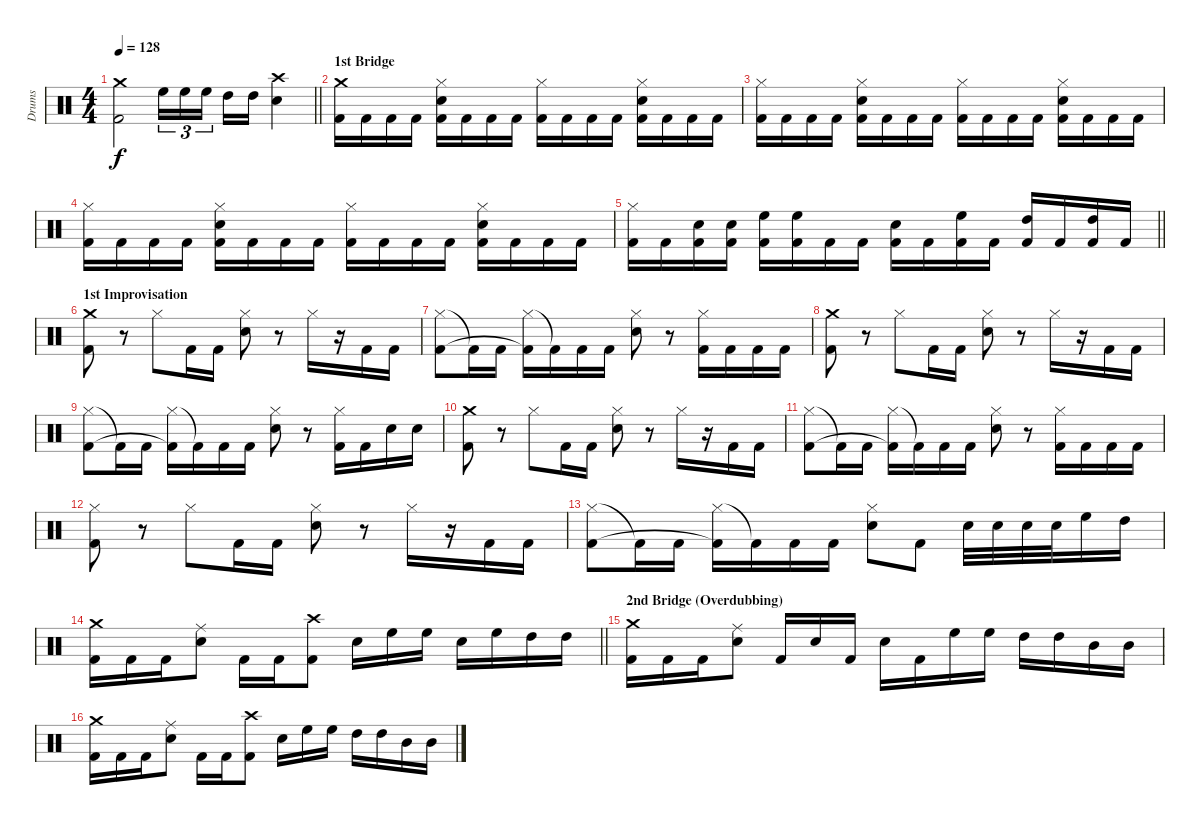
\track ("Drums" "Drums") {instrument percussion}
\staff {score}
\articulation defaults
\ts (4 4)
\tempo 128
\clef neutral
\barLineRight lightlight
\ks c
("Crash medium (hit)"{t} "Kick (hit) 2"{t}).2{dy f} "High Floor Tom (hit)".16{tu (3 2)} "High Floor Tom (hit)".16{tu (3 2)} "High Floor Tom (hit)".16{tu (3 2) beam splitsecondary} "High Tom (hit)".16 "High Tom (hit)".16 ("Crash high (hit)" "Snare (hit) 2").4 |
\section ("" "1st Bridge")
("Crash medium (hit)" "Kick (hit) 2").16 "Kick (hit) 2".16 "Kick (hit) 2".16 "Kick (hit) 2".16 ("Hi-Hat (closed)" "Snare (hit) 2" "Kick (hit) 2").16 "Kick (hit) 2".16 "Kick (hit) 2".16 "Kick (hit) 2".16 ("Hi-Hat (closed)" "Kick (hit) 2").16 "Kick (hit) 2".16 "Kick (hit) 2".16 "Kick (hit) 2".16 ("Hi-Hat (closed)" "Snare (hit) 2" "Kick (hit) 2").16 "Kick (hit) 2".16 "Kick (hit) 2".16 "Kick (hit) 2".16 |
("Hi-Hat (closed)" "Kick (hit) 2").16 "Kick (hit) 2".16 "Kick (hit) 2".16 "Kick (hit) 2".16 ("Hi-Hat (closed)" "Snare (hit) 2" "Kick (hit) 2").16 "Kick (hit) 2".16 "Kick (hit) 2".16 "Kick (hit) 2".16 ("Hi-Hat (closed)" "Kick (hit) 2").16 "Kick (hit) 2".16 "Kick (hit) 2".16 "Kick (hit) 2".16 ("Hi-Hat (closed)" "Snare (hit) 2" "Kick (hit) 2").16 "Kick (hit) 2".16 "Kick (hit) 2".16 "Kick (hit) 2".16 |
("Hi-Hat (closed)" "Kick (hit) 2").16 "Kick (hit) 2".16 "Kick (hit) 2".16 "Kick (hit) 2".16 ("Hi-Hat (closed)" "Snare (hit) 2" "Kick (hit) 2").16 "Kick (hit) 2".16 "Kick (hit) 2".16 "Kick (hit) 2".16 ("Hi-Hat (closed)" "Kick (hit) 2").16 "Kick (hit) 2".16 "Kick (hit) 2".16 "Kick (hit) 2".16 ("Hi-Hat (closed)" "Snare (hit) 2" "Kick (hit) 2").16 "Kick (hit) 2".16 "Kick (hit) 2".16 "Kick (hit) 2".16 |
\barLineRight lightlight
("Hi-Hat (closed)" "Kick (hit) 2").16 "Kick (hit) 2".16 ("Snare (hit) 2" "Kick (hit) 2").16 ("Snare (hit) 2" "Kick (hit) 2").16 ("High Floor Tom (hit)" "Kick (hit) 2").16 ("High Floor Tom (hit)" "Kick (hit) 2").16 "Kick (hit) 2".16 "Kick (hit) 2".16 ("Snare (hit) 2" "Kick (hit) 2").16 "Kick (hit) 2".16 ("High Floor Tom (hit)" "Kick (hit) 2").16 "Kick (hit) 2".16 ("High Tom (hit)" "Kick (hit) 2").16 "Kick (hit) 2".16 ("High Tom (hit)" "Kick (hit) 2").16 "Kick (hit) 2".16 |
\section ("" "1st Improvisation")
("Crash medium (hit)" "Kick (hit) 2").8 r.8 "Hi-Hat (closed)".8 "Kick (hit) 2".16 "Kick (hit) 2".16 ("Hi-Hat (closed)" "Snare (hit) 2").8 r.8 "Hi-Hat (closed)".16 r.16 "Kick (hit) 2".16 "Kick (hit) 2".16 |
("Hi-Hat (closed)" "Kick (hit) 2").8 "Kick (hit) 2"{t}.16 "Kick (hit) 2".16 ("Hi-Hat (closed)" "Kick (hit) 2"{t}).16 "Kick (hit) 2"{t}.16 "Kick (hit) 2".16 "Kick (hit) 2".16 ("Hi-Hat (closed)" "Snare (hit) 2").8 r.8 ("Hi-Hat (closed)" "Kick (hit) 2").16 "Kick (hit) 2".16 "Kick (hit) 2".16 "Kick (hit) 2".16 |
("Crash medium (hit)" "Kick (hit) 2").8 r.8 "Hi-Hat (closed)".8 "Kick (hit) 2".16 "Kick (hit) 2".16 ("Hi-Hat (closed)" "Snare (hit) 2").8 r.8 "Hi-Hat (closed)".16 r.16 "Kick (hit) 2".16 "Kick (hit) 2".16 |
("Hi-Hat (closed)" "Kick (hit) 2").8 "Kick (hit) 2"{t}.16 "Kick (hit) 2".16 ("Hi-Hat (closed)" "Kick (hit) 2"{t}).16 "Kick (hit) 2"{t}.16 "Kick (hit) 2".16 "Kick (hit) 2".16 ("Hi-Hat (closed)" "Snare (hit) 2").8 r.8 ("Hi-Hat (closed)" "Kick (hit) 2").16 "Kick (hit) 2".16 "Snare (hit) 2".16 "Snare (hit) 2".16 |
("Crash medium (hit)" "Kick (hit) 2").8 r.8 "Hi-Hat (closed)".8 "Kick (hit) 2".16 "Kick (hit) 2".16 ("Hi-Hat (closed)" "Snare (hit) 2").8 r.8 "Hi-Hat (closed)".16 r.16 "Kick (hit) 2".16 "Kick (hit) 2".16 |
("Hi-Hat (closed)" "Kick (hit) 2").8 "Kick (hit) 2"{t}.16 "Kick (hit) 2".16 ("Hi-Hat (closed)" "Kick (hit) 2"{t}).16 "Kick (hit) 2"{t}.16 "Kick (hit) 2".16 "Kick (hit) 2".16 ("Hi-Hat (closed)" "Snare (hit) 2").8 r.8 ("Hi-Hat (closed)" "Kick (hit) 2").16 "Kick (hit) 2".16 "Kick (hit) 2".16 "Kick (hit) 2".16 |
("Hi-Hat (closed)" "Kick (hit) 2").8 r.8 "Hi-Hat (closed)".8 "Kick (hit) 2".16 "Kick (hit) 2".16 ("Hi-Hat (closed)" "Snare (hit) 2").8 r.8 "Hi-Hat (closed)".16 r.16 "Kick (hit) 2".16 "Kick (hit) 2".16 |
("Hi-Hat (closed)" "Kick (hit) 2").8 "Kick (hit) 2"{t}.16 "Kick (hit) 2".16 ("Hi-Hat (closed)" "Kick (hit) 2"{t}).16 "Kick (hit) 2"{t}.16 "Kick (hit) 2".16 "Kick (hit) 2".16 ("Hi-Hat (closed)" "Snare (hit) 2").8 "Kick (hit) 2".8 "Snare (hit) 2".32 "Snare (hit) 2".32 "Snare (hit) 2".32 "Snare (hit) 2".32 "High Floor Tom (hit)".16 "High Tom (hit)".16 |
\barLineRight lightlight
("Crash medium (hit)" "Kick (hit) 2").16 "Kick (hit) 2".16 "Kick (hit) 2".16 ("Ride (middle)" "Snare (hit) 2").8 "Kick (hit) 2".16 "Kick (hit) 2".16 ("Crash high (hit)" "Kick (hit) 2").8 "Snare (hit) 2".16 "High Floor Tom (hit)".16 "High Floor Tom (hit)".16 "Snare (hit) 2".16 "High Floor Tom (hit)".16 "High Tom (hit)".16 "High Tom (hit)".16 |
\section ("" "2nd Bridge (Overdubbing)")
("Crash medium (hit)" "Kick (hit) 2").16 "Kick (hit) 2".16 "Kick (hit) 2".16 ("Ride (middle)" "Snare (hit) 2").8 "Kick (hit) 2".16 "Snare (hit) 2".16 "Kick (hit) 2".16 "Snare (hit) 2".16 "Kick (hit) 2".16 "High Floor Tom (hit)".16 "High Floor Tom (hit)".16 "High Tom (hit)".16 "High Tom (hit)".16 "Mid Tom (hit)".16 "Mid Tom (hit)".16 |
("Crash medium (hit)" "Kick (hit) 2").16 "Kick (hit) 2".16 "Kick (hit) 2".16 ("Ride (middle)" "Snare (hit) 2").8 "Kick (hit) 2".16 "Kick (hit) 2".16 ("Crash high (hit)" "Kick (hit) 2").8 "Snare (hit) 2".16 "High Floor Tom (hit)".16 "High Floor Tom (hit)".16 "High Tom (hit)".16 "High Tom (hit)".16 "Mid Tom (hit)".16 "Mid Tom (hit)".16
